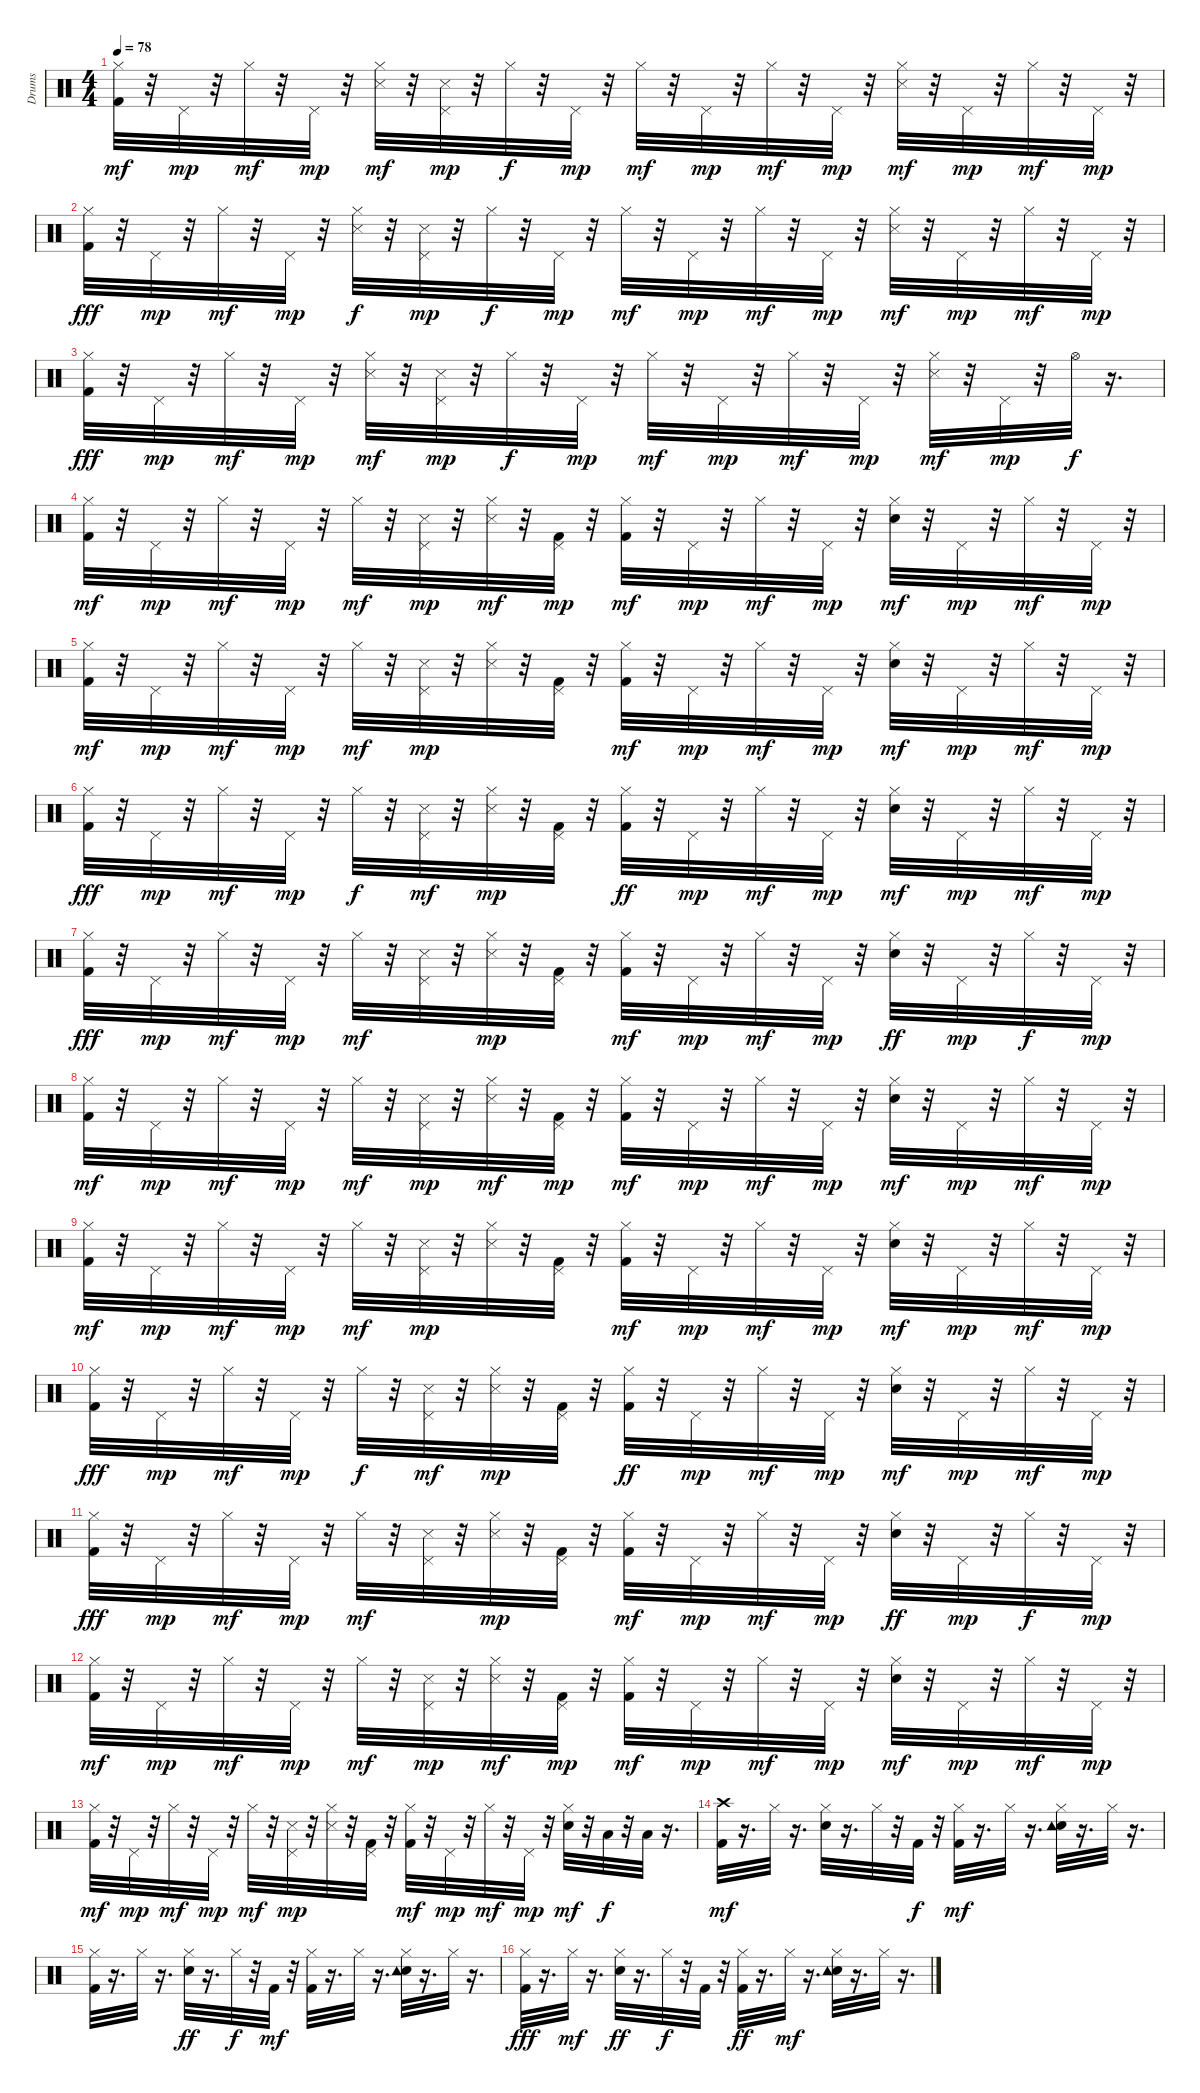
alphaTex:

\track ("Drums   " "Drums   ") {instrument percussion}
\staff {score}
\articulation defaults
\ts (4 4)
\tempo 78
\clef neutral
\ks c
("Kick (hit) 2" "Hi-Hat (closed)").32{dy mf} r.32 "Pedal Hi-Hat (hit)".32{dy mp} r.32 "Hi-Hat (closed)".32{dy mf} r.32 "Pedal Hi-Hat (hit)".32{dy mp} r.32 ("Hi-Hat (closed)" "Snare (side stick) 3").32{dy mf} r.32 ("Snare (side stick) 3" "Pedal Hi-Hat (hit)").32{dy mp} r.32 "Hi-Hat (closed)".32{dy f} r.32 "Pedal Hi-Hat (hit)".32{dy mp} r.32 "Hi-Hat (closed)".32{dy mf} r.32 "Pedal Hi-Hat (hit)".32{dy mp} r.32 "Hi-Hat (closed)".32{dy mf} r.32 "Pedal Hi-Hat (hit)".32{dy mp} r.32 ("Snare (side stick) 3" "Hi-Hat (closed)").32{dy mf} r.32 "Pedal Hi-Hat (hit)".32{dy mp} r.32 "Hi-Hat (closed)".32{dy mf} r.32 "Pedal Hi-Hat (hit)".32{dy mp} r.32 |
("Hi-Hat (closed)" "Kick (hit) 2").32{dy fff} r.32 "Pedal Hi-Hat (hit)".32{dy mp} r.32 "Hi-Hat (closed)".32{dy mf} r.32 "Pedal Hi-Hat (hit)".32{dy mp} r.32 ("Snare (side stick) 3" "Hi-Hat (closed)").32{dy f} r.32 ("Snare (side stick) 3" "Pedal Hi-Hat (hit)").32{dy mp} r.32 "Hi-Hat (closed)".32{dy f} r.32 "Pedal Hi-Hat (hit)".32{dy mp} r.32 "Hi-Hat (closed)".32{dy mf} r.32 "Pedal Hi-Hat (hit)".32{dy mp} r.32 "Hi-Hat (closed)".32{dy mf} r.32 "Pedal Hi-Hat (hit)".32{dy mp} r.32 ("Snare (side stick) 3" "Hi-Hat (closed)").32{dy mf} r.32 "Pedal Hi-Hat (hit)".32{dy mp} r.32 "Hi-Hat (closed)".32{dy mf} r.32 "Pedal Hi-Hat (hit)".32{dy mp} r.32 |
("Hi-Hat (closed)" "Kick (hit) 2").32{dy fff} r.32 "Pedal Hi-Hat (hit)".32{dy mp} r.32 "Hi-Hat (closed)".32{dy mf} r.32 "Pedal Hi-Hat (hit)".32{dy mp} r.32 ("Snare (side stick) 3" "Hi-Hat (closed)").32{dy mf} r.32 ("Snare (side stick) 3" "Pedal Hi-Hat (hit)").32{dy mp} r.32 "Hi-Hat (closed)".32{dy f} r.32 "Pedal Hi-Hat (hit)".32{dy mp} r.32 "Hi-Hat (closed)".32{dy mf} r.32 "Pedal Hi-Hat (hit)".32{dy mp} r.32 "Hi-Hat (closed)".32{dy mf} r.32 "Pedal Hi-Hat (hit)".32{dy mp} r.32 ("Hi-Hat (closed)" "Snare (side stick) 3").32{dy mf} r.32 "Pedal Hi-Hat (hit)".32{dy mp} r.32 "Hi-Hat (open)".32{dy f} r.16{d} |
("Kick (hit) 2" "Hi-Hat (closed)").32{dy mf} r.32 "Pedal Hi-Hat (hit)".32{dy mp} r.32 "Hi-Hat (closed)".32{dy mf} r.32 "Pedal Hi-Hat (hit)".32{dy mp} r.32 "Hi-Hat (closed)".32{dy mf} r.32 ("Snare (side stick) 3" "Pedal Hi-Hat (hit)").32{dy mp} r.32 ("Snare (side stick) 3" "Hi-Hat (closed)").32{dy mf} r.32 ("Kick (hit) 2" "Pedal Hi-Hat (hit)").32{dy mp} r.32 ("Kick (hit) 2" "Hi-Hat (closed)").32{dy mf} r.32 "Pedal Hi-Hat (hit)".32{dy mp} r.32 "Hi-Hat (closed)".32{dy mf} r.32 "Pedal Hi-Hat (hit)".32{dy mp} r.32 ("Snare (hit) 2" "Hi-Hat (closed)").32{dy mf} r.32 "Pedal Hi-Hat (hit)".32{dy mp} r.32 "Hi-Hat (closed)".32{dy mf} r.32 "Pedal Hi-Hat (hit)".32{dy mp} r.32 |
("Kick (hit) 2" "Hi-Hat (closed)").32{dy mf} r.32 "Pedal Hi-Hat (hit)".32{dy mp} r.32 "Hi-Hat (closed)".32{dy mf} r.32 "Pedal Hi-Hat (hit)".32{dy mp} r.32 "Hi-Hat (closed)".32{dy mf} r.32 ("Snare (side stick) 3" "Pedal Hi-Hat (hit)").32{dy mp} r.32 ("Snare (side stick) 3" "Hi-Hat (closed)").32 r.32 ("Kick (hit) 2" "Pedal Hi-Hat (hit)").32 r.32 ("Kick (hit) 2" "Hi-Hat (closed)").32{dy mf} r.32 "Pedal Hi-Hat (hit)".32{dy mp} r.32 "Hi-Hat (closed)".32{dy mf} r.32 "Pedal Hi-Hat (hit)".32{dy mp} r.32 ("Snare (hit) 2" "Hi-Hat (closed)").32{dy mf} r.32 "Pedal Hi-Hat (hit)".32{dy mp} r.32 "Hi-Hat (closed)".32{dy mf} r.32 "Pedal Hi-Hat (hit)".32{dy mp} r.32 |
("Hi-Hat (closed)" "Kick (hit) 2").32{dy fff} r.32 "Pedal Hi-Hat (hit)".32{dy mp} r.32 "Hi-Hat (closed)".32{dy mf} r.32 "Pedal Hi-Hat (hit)".32{dy mp} r.32 "Hi-Hat (closed)".32{dy f} r.32 ("Pedal Hi-Hat (hit)" "Snare (side stick) 3").32{dy mf} r.32 ("Snare (side stick) 3" "Hi-Hat (closed)").32{dy mp} r.32 ("Kick (hit) 2" "Pedal Hi-Hat (hit)").32 r.32 ("Hi-Hat (closed)" "Kick (hit) 2").32{dy ff} r.32 "Pedal Hi-Hat (hit)".32{dy mp} r.32 "Hi-Hat (closed)".32{dy mf} r.32 "Pedal Hi-Hat (hit)".32{dy mp} r.32 ("Snare (hit) 2" "Hi-Hat (closed)").32{dy mf} r.32 "Pedal Hi-Hat (hit)".32{dy mp} r.32 "Hi-Hat (closed)".32{dy mf} r.32 "Pedal Hi-Hat (hit)".32{dy mp} r.32 |
("Hi-Hat (closed)" "Kick (hit) 2").32{dy fff} r.32 "Pedal Hi-Hat (hit)".32{dy mp} r.32 "Hi-Hat (closed)".32{dy mf} r.32 "Pedal Hi-Hat (hit)".32{dy mp} r.32 "Hi-Hat (closed)".32{dy mf} r.32 ("Pedal Hi-Hat (hit)" "Snare (side stick) 3").32 r.32 ("Snare (side stick) 3" "Hi-Hat (closed)").32{dy mp} r.32 ("Kick (hit) 2" "Pedal Hi-Hat (hit)").32 r.32 ("Kick (hit) 2" "Hi-Hat (closed)").32{dy mf} r.32 "Pedal Hi-Hat (hit)".32{dy mp} r.32 "Hi-Hat (closed)".32{dy mf} r.32 "Pedal Hi-Hat (hit)".32{dy mp} r.32 ("Hi-Hat (closed)" "Snare (hit) 2").32{dy ff} r.32 "Pedal Hi-Hat (hit)".32{dy mp} r.32 "Hi-Hat (closed)".32{dy f} r.32 "Pedal Hi-Hat (hit)".32{dy mp} r.32 |
("Kick (hit) 2" "Hi-Hat (closed)").32{dy mf} r.32 "Pedal Hi-Hat (hit)".32{dy mp} r.32 "Hi-Hat (closed)".32{dy mf} r.32 "Pedal Hi-Hat (hit)".32{dy mp} r.32 "Hi-Hat (closed)".32{dy mf} r.32 ("Snare (side stick) 3" "Pedal Hi-Hat (hit)").32{dy mp} r.32 ("Snare (side stick) 3" "Hi-Hat (closed)").32{dy mf} r.32 ("Kick (hit) 2" "Pedal Hi-Hat (hit)").32{dy mp} r.32 ("Kick (hit) 2" "Hi-Hat (closed)").32{dy mf} r.32 "Pedal Hi-Hat (hit)".32{dy mp} r.32 "Hi-Hat (closed)".32{dy mf} r.32 "Pedal Hi-Hat (hit)".32{dy mp} r.32 ("Snare (hit) 2" "Hi-Hat (closed)").32{dy mf} r.32 "Pedal Hi-Hat (hit)".32{dy mp} r.32 "Hi-Hat (closed)".32{dy mf} r.32 "Pedal Hi-Hat (hit)".32{dy mp} r.32 |
("Kick (hit) 2" "Hi-Hat (closed)").32{dy mf} r.32 "Pedal Hi-Hat (hit)".32{dy mp} r.32 "Hi-Hat (closed)".32{dy mf} r.32 "Pedal Hi-Hat (hit)".32{dy mp} r.32 "Hi-Hat (closed)".32{dy mf} r.32 ("Snare (side stick) 3" "Pedal Hi-Hat (hit)").32{dy mp} r.32 ("Snare (side stick) 3" "Hi-Hat (closed)").32 r.32 ("Kick (hit) 2" "Pedal Hi-Hat (hit)").32 r.32 ("Kick (hit) 2" "Hi-Hat (closed)").32{dy mf} r.32 "Pedal Hi-Hat (hit)".32{dy mp} r.32 "Hi-Hat (closed)".32{dy mf} r.32 "Pedal Hi-Hat (hit)".32{dy mp} r.32 ("Snare (hit) 2" "Hi-Hat (closed)").32{dy mf} r.32 "Pedal Hi-Hat (hit)".32{dy mp} r.32 "Hi-Hat (closed)".32{dy mf} r.32 "Pedal Hi-Hat (hit)".32{dy mp} r.32 |
("Hi-Hat (closed)" "Kick (hit) 2").32{dy fff} r.32 "Pedal Hi-Hat (hit)".32{dy mp} r.32 "Hi-Hat (closed)".32{dy mf} r.32 "Pedal Hi-Hat (hit)".32{dy mp} r.32 "Hi-Hat (closed)".32{dy f} r.32 ("Pedal Hi-Hat (hit)" "Snare (side stick) 3").32{dy mf} r.32 ("Snare (side stick) 3" "Hi-Hat (closed)").32{dy mp} r.32 ("Kick (hit) 2" "Pedal Hi-Hat (hit)").32 r.32 ("Hi-Hat (closed)" "Kick (hit) 2").32{dy ff} r.32 "Pedal Hi-Hat (hit)".32{dy mp} r.32 "Hi-Hat (closed)".32{dy mf} r.32 "Pedal Hi-Hat (hit)".32{dy mp} r.32 ("Snare (hit) 2" "Hi-Hat (closed)").32{dy mf} r.32 "Pedal Hi-Hat (hit)".32{dy mp} r.32 "Hi-Hat (closed)".32{dy mf} r.32 "Pedal Hi-Hat (hit)".32{dy mp} r.32 |
("Hi-Hat (closed)" "Kick (hit) 2").32{dy fff} r.32 "Pedal Hi-Hat (hit)".32{dy mp} r.32 "Hi-Hat (closed)".32{dy mf} r.32 "Pedal Hi-Hat (hit)".32{dy mp} r.32 "Hi-Hat (closed)".32{dy mf} r.32 ("Pedal Hi-Hat (hit)" "Snare (side stick) 3").32 r.32 ("Snare (side stick) 3" "Hi-Hat (closed)").32{dy mp} r.32 ("Kick (hit) 2" "Pedal Hi-Hat (hit)").32 r.32 ("Kick (hit) 2" "Hi-Hat (closed)").32{dy mf} r.32 "Pedal Hi-Hat (hit)".32{dy mp} r.32 "Hi-Hat (closed)".32{dy mf} r.32 "Pedal Hi-Hat (hit)".32{dy mp} r.32 ("Hi-Hat (closed)" "Snare (hit) 2").32{dy ff} r.32 "Pedal Hi-Hat (hit)".32{dy mp} r.32 "Hi-Hat (closed)".32{dy f} r.32 "Pedal Hi-Hat (hit)".32{dy mp} r.32 |
("Kick (hit) 2" "Hi-Hat (closed)").32{dy mf} r.32 "Pedal Hi-Hat (hit)".32{dy mp} r.32 "Hi-Hat (closed)".32{dy mf} r.32 "Pedal Hi-Hat (hit)".32{dy mp} r.32 "Hi-Hat (closed)".32{dy mf} r.32 ("Snare (side stick) 3" "Pedal Hi-Hat (hit)").32{dy mp} r.32 ("Snare (side stick) 3" "Hi-Hat (closed)").32{dy mf} r.32 ("Kick (hit) 2" "Pedal Hi-Hat (hit)").32{dy mp} r.32 ("Kick (hit) 2" "Hi-Hat (closed)").32{dy mf} r.32 "Pedal Hi-Hat (hit)".32{dy mp} r.32 "Hi-Hat (closed)".32{dy mf} r.32 "Pedal Hi-Hat (hit)".32{dy mp} r.32 ("Snare (hit) 2" "Hi-Hat (closed)").32{dy mf} r.32 "Pedal Hi-Hat (hit)".32{dy mp} r.32 "Hi-Hat (closed)".32{dy mf} r.32 "Pedal Hi-Hat (hit)".32{dy mp} r.32 |
("Kick (hit) 2" "Hi-Hat (closed)").32{dy mf} r.32 "Pedal Hi-Hat (hit)".32{dy mp} r.32 "Hi-Hat (closed)".32{dy mf} r.32 "Pedal Hi-Hat (hit)".32{dy mp} r.32 "Hi-Hat (closed)".32{dy mf} r.32 ("Snare (side stick) 3" "Pedal Hi-Hat (hit)").32{dy mp} r.32 ("Snare (side stick) 3" "Hi-Hat (closed)").32 r.32 ("Kick (hit) 2" "Pedal Hi-Hat (hit)").32 r.32 ("Kick (hit) 2" "Hi-Hat (closed)").32{dy mf} r.32 "Pedal Hi-Hat (hit)".32{dy mp} r.32 "Hi-Hat (closed)".32{dy mf} r.32 "Pedal Hi-Hat (hit)".32{dy mp} r.32 ("Snare (hit) 2" "Hi-Hat (closed)").32{dy mf} r.32 "Low Tom (hit)".32{dy f} r.32 "Low Floor Tom (hit)".32 r.16{d} |
("Kick (hit) 2" "Crash high (hit)").32{dy mf} r.16{d} "Hi-Hat (closed)".32 r.16{d} ("Snare (hit) 2" "Hi-Hat (closed)").32 r.16{d} "Hi-Hat (closed)".32 r.32 "Kick (hit) 2".32{dy f} r.32 ("Kick (hit) 2" "Hi-Hat (closed)").32{dy mf} r.16{d} "Hi-Hat (closed)".32 r.16{d} ("Snare (hit) 2" "Tambourine (hit)" "Hi-Hat (closed)").32 r.16{d} "Hi-Hat (closed)".32 r.16{d} |
("Kick (hit) 2" "Hi-Hat (closed)").32 r.16{d} "Hi-Hat (closed)".32 r.16{d} ("Hi-Hat (closed)" "Snare (hit) 2").32{dy ff} r.16{d} "Hi-Hat (closed)".32{dy f} r.32 "Kick (hit) 2".32{dy mf} r.32 ("Kick (hit) 2" "Hi-Hat (closed)").32 r.16{d} "Hi-Hat (closed)".32 r.16{d} ("Snare (hit) 2" "Tambourine (hit)" "Hi-Hat (closed)").32 r.16{d} "Hi-Hat (closed)".32 r.16{d} |
("Hi-Hat (closed)" "Kick (hit) 2").32{dy fff} r.16{d} "Hi-Hat (closed)".32{dy mf} r.16{d} ("Snare (hit) 2" "Hi-Hat (closed)").32{dy ff} r.16{d} "Hi-Hat (closed)".32{dy f} r.32 "Kick (hit) 2".32 r.32 ("Hi-Hat (closed)" "Kick (hit) 2").32{dy ff} r.16{d} "Hi-Hat (closed)".32{dy mf} r.16{d} ("Snare (hit) 2" "Tambourine (hit)" "Hi-Hat (closed)").32 r.16{d} "Hi-Hat (closed)".32 r.16{d}
